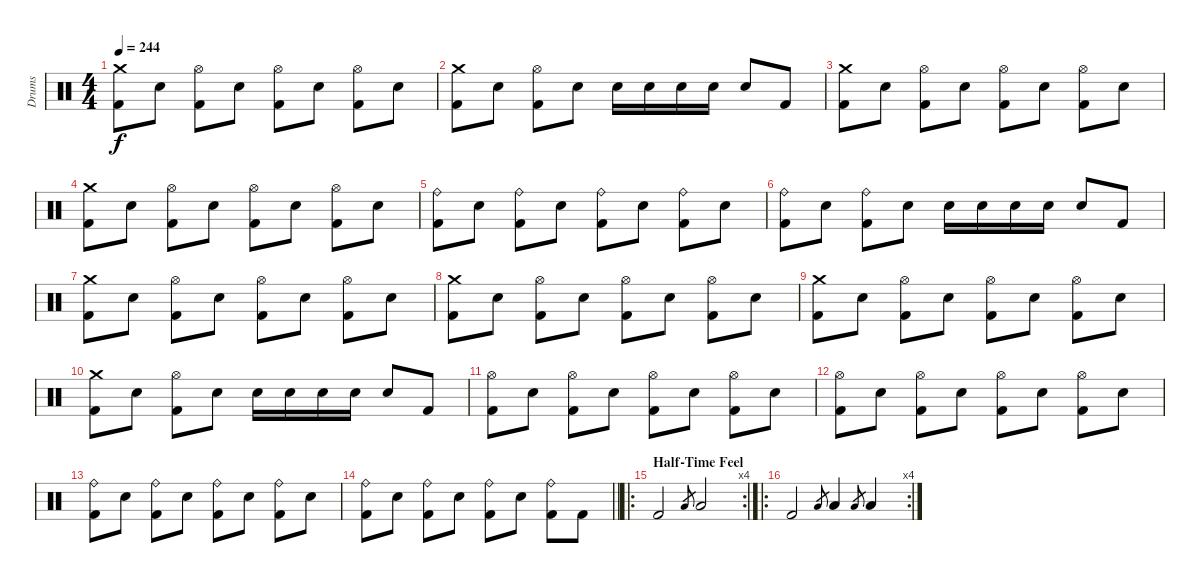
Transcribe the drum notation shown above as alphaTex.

\track ("Drums" "Drums") {instrument percussion}
\staff
\articulation defaults
\ts (4 4)
\tempo 244
\clef neutral
\ks c
("Crash medium (hit)" "Kick (hit) 2").8{dy f} "Electric Snare (hit)".8 ("Hi-Hat (open)" "Kick (hit) 2").8 "Electric Snare (hit)".8 ("Hi-Hat (open)" "Kick (hit) 2").8 "Electric Snare (hit)".8 ("Hi-Hat (open)" "Kick (hit) 2").8 "Electric Snare (hit)".8 |
("Crash medium (hit)" "Kick (hit) 2").8 "Electric Snare (hit)".8 ("Hi-Hat (open)" "Kick (hit) 2").8 "Electric Snare (hit)".8 "Electric Snare (hit)".16 "Electric Snare (hit)".16 "Electric Snare (hit)".16 "Electric Snare (hit)".16 "Electric Snare (hit)".8 "Kick (hit) 2".8 |
("Crash medium (hit)" "Kick (hit) 2").8 "Electric Snare (hit)".8 ("Hi-Hat (open)" "Kick (hit) 2").8 "Electric Snare (hit)".8 ("Hi-Hat (open)" "Kick (hit) 2").8 "Electric Snare (hit)".8 ("Hi-Hat (open)" "Kick (hit) 2").8 "Electric Snare (hit)".8 |
("Crash medium (hit)" "Kick (hit) 2").8 "Electric Snare (hit)".8 ("Hi-Hat (open)" "Kick (hit) 2").8 "Electric Snare (hit)".8 ("Hi-Hat (open)" "Kick (hit) 2").8 "Electric Snare (hit)".8 ("Hi-Hat (open)" "Kick (hit) 2").8 "Electric Snare (hit)".8 |
("Ride (bell)" "Kick (hit) 2").8 "Electric Snare (hit)".8 ("Ride (bell)" "Kick (hit) 2").8 "Electric Snare (hit)".8 ("Ride (bell)" "Kick (hit) 2").8 "Electric Snare (hit)".8 ("Ride (bell)" "Kick (hit) 2").8 "Electric Snare (hit)".8 |
("Ride (bell)" "Kick (hit) 2").8 "Electric Snare (hit)".8 ("Ride (bell)" "Kick (hit) 2").8 "Electric Snare (hit)".8 "Electric Snare (hit)".16 "Electric Snare (hit)".16 "Electric Snare (hit)".16 "Electric Snare (hit)".16 "Electric Snare (hit)".8 "Kick (hit) 2".8 |
("Crash medium (hit)" "Kick (hit) 2").8 "Electric Snare (hit)".8 ("Hi-Hat (open)" "Kick (hit) 2").8 "Electric Snare (hit)".8 ("Hi-Hat (open)" "Kick (hit) 2").8 "Electric Snare (hit)".8 ("Hi-Hat (open)" "Kick (hit) 2").8 "Electric Snare (hit)".8 |
("Crash medium (hit)" "Kick (hit) 2").8 "Electric Snare (hit)".8 ("Hi-Hat (open)" "Kick (hit) 2").8 "Electric Snare (hit)".8 ("Hi-Hat (open)" "Kick (hit) 2").8 "Electric Snare (hit)".8 ("Hi-Hat (open)" "Kick (hit) 2").8 "Electric Snare (hit)".8 |
("Crash medium (hit)" "Kick (hit) 2").8 "Electric Snare (hit)".8 ("Hi-Hat (open)" "Kick (hit) 2").8 "Electric Snare (hit)".8 ("Hi-Hat (open)" "Kick (hit) 2").8 "Electric Snare (hit)".8 ("Hi-Hat (open)" "Kick (hit) 2").8 "Electric Snare (hit)".8 |
("Crash medium (hit)" "Kick (hit) 2").8 "Electric Snare (hit)".8 ("Hi-Hat (open)" "Kick (hit) 2").8 "Electric Snare (hit)".8 "Electric Snare (hit)".16 "Electric Snare (hit)".16 "Electric Snare (hit)".16 "Electric Snare (hit)".16 "Electric Snare (hit)".8 "Kick (hit) 2".8 |
("Hi-Hat (open)" "Kick (hit) 2").8 "Electric Snare (hit)".8 ("Hi-Hat (open)" "Kick (hit) 2").8 "Electric Snare (hit)".8 ("Hi-Hat (open)" "Kick (hit) 2").8 "Electric Snare (hit)".8 ("Hi-Hat (open)" "Kick (hit) 2").8 "Electric Snare (hit)".8 |
("Hi-Hat (open)" "Kick (hit) 2").8 "Electric Snare (hit)".8 ("Hi-Hat (open)" "Kick (hit) 2").8 "Electric Snare (hit)".8 ("Hi-Hat (open)" "Kick (hit) 2").8 "Electric Snare (hit)".8 ("Hi-Hat (open)" "Kick (hit) 2").8 "Electric Snare (hit)".8 |
("Ride (bell)" "Kick (hit) 2").8 "Electric Snare (hit)".8 ("Ride (bell)" "Kick (hit) 2").8 "Electric Snare (hit)".8 ("Ride (bell)" "Kick (hit) 2").8 "Electric Snare (hit)".8 ("Ride (bell)" "Kick (hit) 2").8 "Electric Snare (hit)".8 |
\barLineRight lightlight
("Ride (bell)" "Kick (hit) 2").8 "Electric Snare (hit)".8 ("Ride (bell)" "Kick (hit) 2").8 "Electric Snare (hit)".8 ("Ride (bell)" "Kick (hit) 2").8 "Electric Snare (hit)".8 ("Ride (bell)" "Kick (hit) 2").8 "Kick (hit) 2".8 |
\ro
\rc 4
\section ("" "Half-Time Feel")
"Kick (hit) 2".2 "Low Floor Tom (hit)".8{gr} "Low Floor Tom (hit)".2 |
\ro
\rc 4 "Kick (hit) 2".2 "Low Floor Tom (hit)".8{gr} "Low Floor Tom (hit)".4 "Low Floor Tom (hit)".8{gr} "Low Floor Tom (hit)".4
